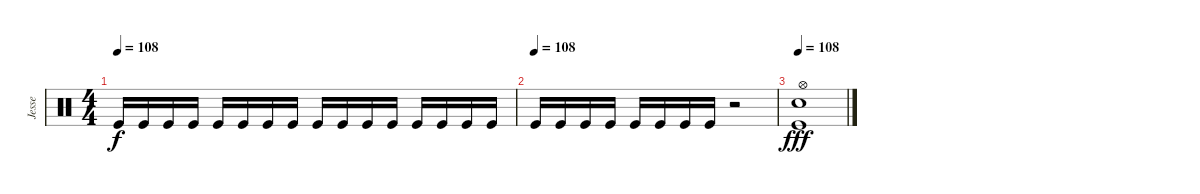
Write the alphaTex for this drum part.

\track ("Jesse" "Jesse") {instrument percussion}
\staff {score}
\articulation defaults
\ts (4 4)
\tempo 108
\clef neutral
\ks c "Kick (hit)".16{dy f} "Kick (hit)".16 "Kick (hit)".16 "Kick (hit)".16 "Kick (hit)".16 "Kick (hit)".16 "Kick (hit)".16 "Kick (hit)".16 "Kick (hit)".16 "Kick (hit)".16 "Kick (hit)".16 "Kick (hit)".16 "Kick (hit)".16 "Kick (hit)".16 "Kick (hit)".16 "Kick (hit)".16
|
\tempo (108)
"Kick (hit)".16{volume 0} "Kick (hit)".16 "Kick (hit)".16 "Kick (hit)".16 "Kick (hit)".16 "Kick (hit)".16 "Kick (hit)".16 "Kick (hit)".16 r.2 |
\tempo 108
("Hi-Hat (open)" "Snare (hit) 2" "Kick (hit)").1{dy fff volume 16}
